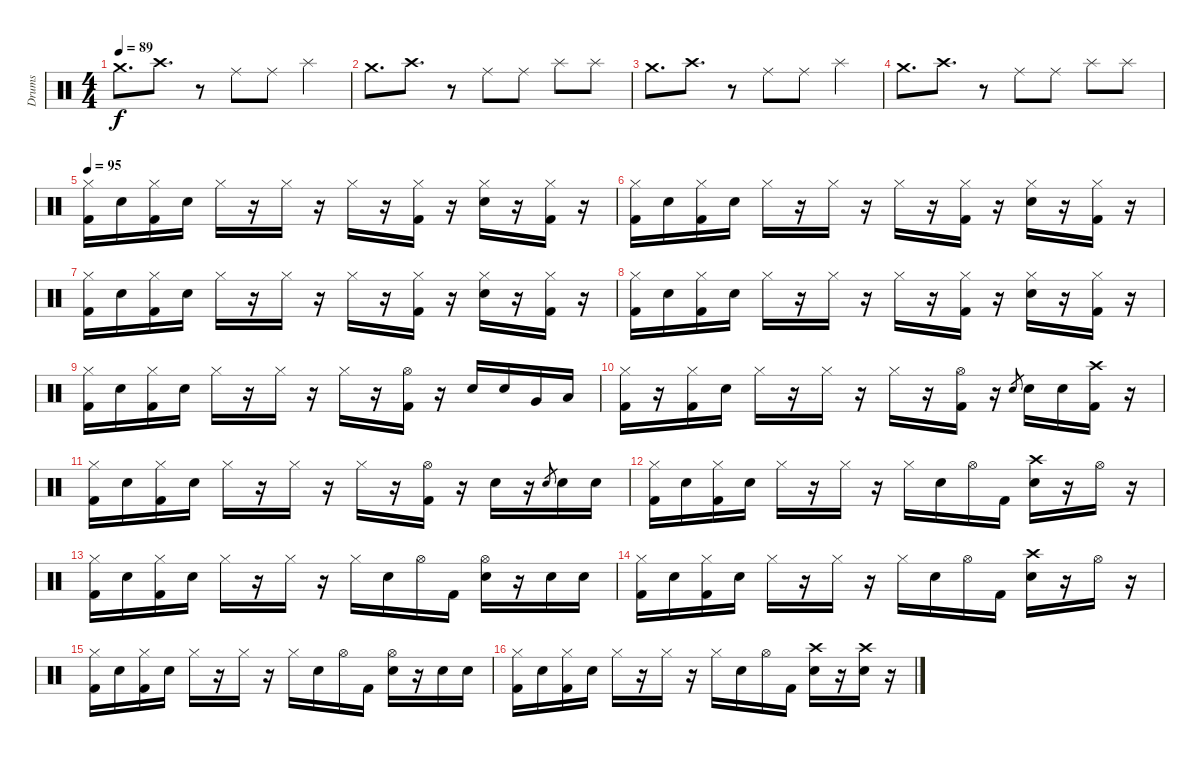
\track ("Drums" "Drums") {instrument percussion}
\staff {score}
\articulation defaults
\ts (4 4)
\tempo 89
\clef neutral
\ks c "Crash medium (hit)".8{d dy f} "Crash high (hit)".8{d}
r.8 "Ride (middle)".8 "Ride (middle)".8 "Splash (hit)".4 |
"Crash medium (hit)".8{d} "Crash high (hit)".8{d} r.8 "Ride (middle)".8 "Ride (middle)".8 "Splash (hit)".8 "Splash (hit)".8 |
"Crash medium (hit)".8{d} "Crash high (hit)".8{d} r.8 "Ride (middle)".8 "Ride (middle)".8 "Splash (hit)".4 |
"Crash medium (hit)".8{d} "Crash high (hit)".8{d} r.8 "Ride (middle)".8 "Ride (middle)".8 "Splash (hit)".8 "Splash (hit)".8 |
\tempo 95
("Hi-Hat (closed)" "Kick (hit) 2").16 "Electric Snare (hit)".16 ("Hi-Hat (closed)" "Kick (hit) 2").16 "Electric Snare (hit)".16 "Hi-Hat (closed)".16 r.16 "Hi-Hat (closed)".16 r.16 "Hi-Hat (closed)".16 r.16 ("Hi-Hat (closed)" "Kick (hit) 2").16 r.16 ("Hi-Hat (closed)" "Electric Snare (hit)").16 r.16 ("Hi-Hat (closed)" "Kick (hit) 2").16 r.16 |
("Hi-Hat (closed)" "Kick (hit) 2").16 "Electric Snare (hit)".16 ("Hi-Hat (closed)" "Kick (hit) 2").16 "Electric Snare (hit)".16 "Hi-Hat (closed)".16 r.16 "Hi-Hat (closed)".16 r.16 "Hi-Hat (closed)".16 r.16 ("Hi-Hat (closed)" "Kick (hit) 2").16 r.16 ("Hi-Hat (closed)" "Electric Snare (hit)").16 r.16 ("Hi-Hat (closed)" "Kick (hit) 2").16 r.16 |
("Hi-Hat (closed)" "Kick (hit) 2").16 "Electric Snare (hit)".16 ("Hi-Hat (closed)" "Kick (hit) 2").16 "Electric Snare (hit)".16 "Hi-Hat (closed)".16 r.16 "Hi-Hat (closed)".16 r.16 "Hi-Hat (closed)".16 r.16 ("Hi-Hat (closed)" "Kick (hit) 2").16 r.16 ("Hi-Hat (closed)" "Electric Snare (hit)").16 r.16 ("Hi-Hat (closed)" "Kick (hit) 2").16 r.16 |
("Hi-Hat (closed)" "Kick (hit) 2").16 "Electric Snare (hit)".16 ("Hi-Hat (closed)" "Kick (hit) 2").16 "Electric Snare (hit)".16 "Hi-Hat (closed)".16 r.16 "Hi-Hat (closed)".16 r.16 "Hi-Hat (closed)".16 r.16 ("Hi-Hat (closed)" "Kick (hit) 2").16 r.16 ("Hi-Hat (closed)" "Electric Snare (hit)").16 r.16 ("Hi-Hat (closed)" "Kick (hit) 2").16 r.16 |
("Hi-Hat (closed)" "Kick (hit) 2").16 "Electric Snare (hit)".16 ("Hi-Hat (closed)" "Kick (hit) 2").16 "Electric Snare (hit)".16 "Hi-Hat (closed)".16 r.16 "Hi-Hat (closed)".16 r.16 "Hi-Hat (closed)".16 r.16 ("Hi-Hat (open)" "Kick (hit) 2").16 r.16 "Electric Snare (hit)".16 "Electric Snare (hit)".16 "Very Low Tom (hit)".16 "Low Floor Tom (hit)".16 |
("Hi-Hat (closed)" "Kick (hit) 2").16 r.16 ("Hi-Hat (closed)" "Kick (hit) 2").16 "Electric Snare (hit)".16 "Hi-Hat (closed)".16 r.16 "Hi-Hat (closed)".16 r.16 "Hi-Hat (closed)".16 r.16 ("Hi-Hat (open)" "Kick (hit) 2").16 r.16 "Electric Snare (hit)".8{gr} "Electric Snare (hit)".16 "Electric Snare (hit)".16 ("Crash high (hit)" "Kick (hit) 2").16 r.16 |
("Hi-Hat (closed)" "Kick (hit) 2").16 "Electric Snare (hit)".16 ("Hi-Hat (closed)" "Kick (hit) 2").16 "Electric Snare (hit)".16 "Hi-Hat (closed)".16 r.16 "Hi-Hat (closed)".16 r.16 "Hi-Hat (closed)".16 r.16 ("Hi-Hat (open)" "Kick (hit) 2").16 r.16 "Electric Snare (hit)".16 r.16 "Electric Snare (hit)".8{gr} "Electric Snare (hit)".16 "Electric Snare (hit)".16 |
("Hi-Hat (closed)" "Kick (hit) 2").16 "Electric Snare (hit)".16 ("Hi-Hat (closed)" "Kick (hit) 2").16 "Electric Snare (hit)".16 "Hi-Hat (closed)".16 r.16 "Hi-Hat (closed)".16 r.16 "Hi-Hat (closed)".16 "Electric Snare (hit)".16 "Hi-Hat (open)".16 "Kick (hit) 2".16 ("Crash high (hit)" "Electric Snare (hit)").16 r.16 "Hi-Hat (open)".16 r.16 |
("Hi-Hat (closed)" "Kick (hit) 2").16 "Electric Snare (hit)".16 ("Hi-Hat (closed)" "Kick (hit) 2").16 "Electric Snare (hit)".16 "Hi-Hat (closed)".16 r.16 "Hi-Hat (closed)".16 r.16 "Hi-Hat (closed)".16 "Electric Snare (hit)".16 "Hi-Hat (open)".16 "Kick (hit) 2".16 ("Hi-Hat (open)" "Electric Snare (hit)").16 r.16 "Electric Snare (hit)".16 "Electric Snare (hit)".16 |
("Hi-Hat (closed)" "Kick (hit) 2").16 "Electric Snare (hit)".16 ("Hi-Hat (closed)" "Kick (hit) 2").16 "Electric Snare (hit)".16 "Hi-Hat (closed)".16 r.16 "Hi-Hat (closed)".16 r.16 "Hi-Hat (closed)".16 "Electric Snare (hit)".16 "Hi-Hat (open)".16 "Kick (hit) 2".16 ("Crash high (hit)" "Electric Snare (hit)").16 r.16 "Hi-Hat (open)".16 r.16 |
("Hi-Hat (closed)" "Kick (hit) 2").16 "Electric Snare (hit)".16 ("Hi-Hat (closed)" "Kick (hit) 2").16 "Electric Snare (hit)".16 "Hi-Hat (closed)".16 r.16 "Hi-Hat (closed)".16 r.16 "Hi-Hat (closed)".16 "Electric Snare (hit)".16 "Hi-Hat (open)".16 "Kick (hit) 2".16 ("Hi-Hat (open)" "Electric Snare (hit)").16 r.16 "Electric Snare (hit)".16 "Electric Snare (hit)".16 |
("Hi-Hat (closed)" "Kick (hit) 2").16 "Electric Snare (hit)".16 ("Hi-Hat (closed)" "Kick (hit) 2").16 "Electric Snare (hit)".16 "Hi-Hat (closed)".16 r.16 "Hi-Hat (closed)".16 r.16 "Hi-Hat (closed)".16 "Electric Snare (hit)".16 "Hi-Hat (open)".16 "Kick (hit) 2".16 ("Crash high (hit)" "Electric Snare (hit)").16 r.16 ("Crash high (hit)" "Electric Snare (hit)").16 r.16
